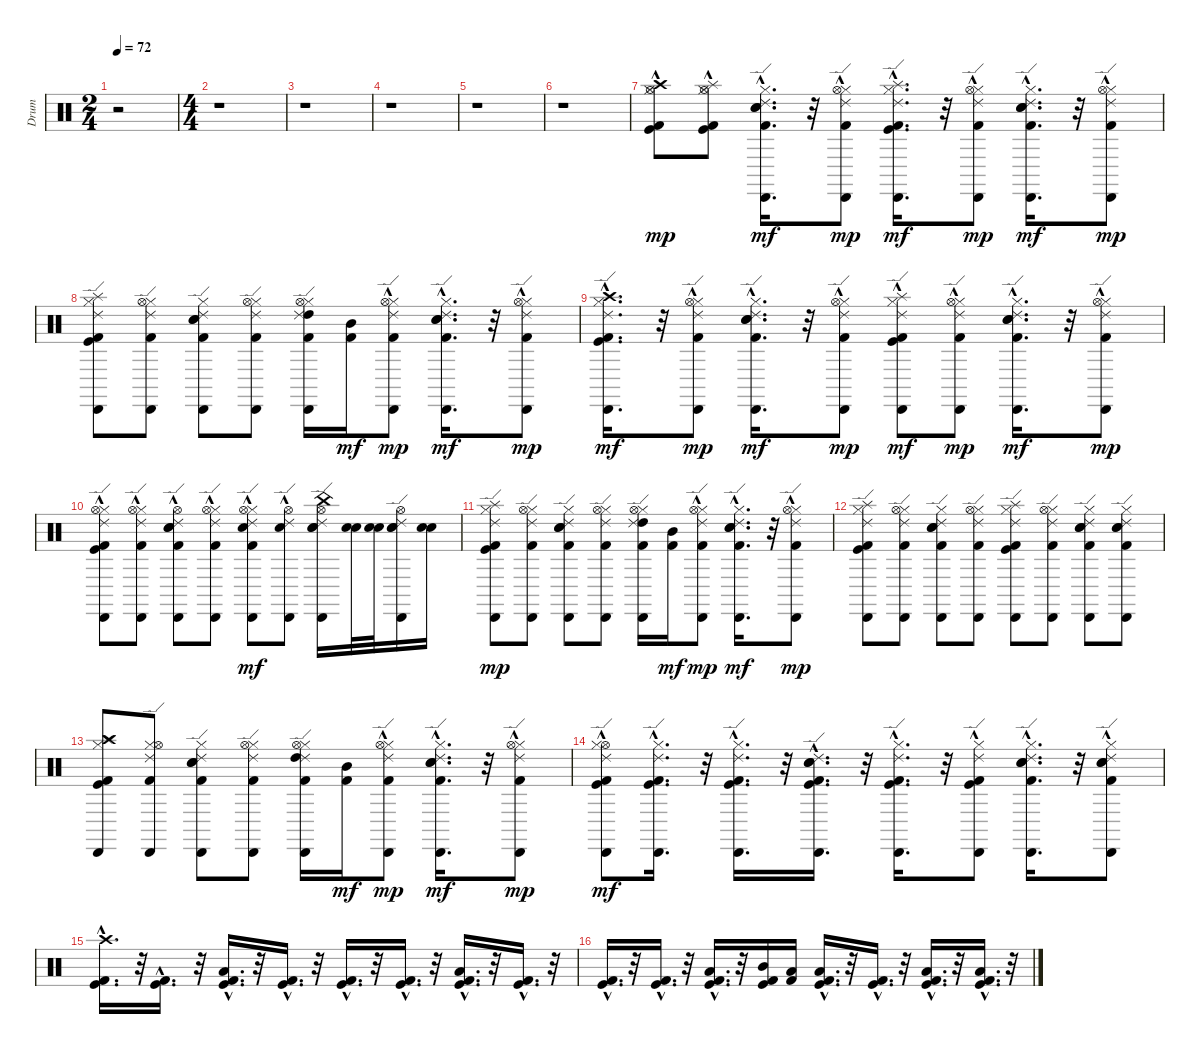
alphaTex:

\track ("Drum" "Drum") {instrument percussion}
\staff {score}
\articulation defaults
\ts (2 4)
\tempo 72
\clef neutral
\ks c
r.2{dy mp} |
\ts (4 4)
r.1 |
r.1 |
r.1 |
r.1 |
r.1 |
("Crash high (hit)"{hac} "Hi-Hat (closed)"{hac} "Kick (hit)"{hac} "Kick (hit) 2"{hac} "Hi-Hat (open)").8 ("Splash (hit)"{hac} "Hi-Hat (closed)"{hac} "Kick (hit)"{hac} "Kick (hit) 2"{hac} "Hi-Hat (open)").8 ("Electric Snare (hit)"{hac} "Snare (hit) 2"{hac} "Kick (hit) 2"{hac} "Cabasa (hit)"{hac} "Hi-Hat (closed)"{hac} "Ride (edge) 2"{hac}).16{d dy mf} r.32 ("Kick (hit) 2"{hac} "Ride (edge) 2"{hac} "Cabasa (hit)"{hac} "Hi-Hat (closed)"{hac} "Hi-Hat (open)").8{dy mp} ("Splash (hit)"{hac} "Ride (edge) 2"{hac} "Cabasa (hit)"{hac} "Kick (hit) 2"{hac} "Kick (hit)"{hac} "Hi-Hat (closed)"{hac}).16{d dy mf} r.32 ("Ride (edge) 2"{hac} "Cabasa (hit)"{hac} "Kick (hit) 2"{hac} "Hi-Hat (closed)"{hac} "Hi-Hat (open)").8{dy mp} ("Kick (hit) 2"{hac} "Electric Snare (hit)"{hac} "Cabasa (hit)"{hac} "Hi-Hat (closed)"{hac} "Snare (hit) 2"{hac} "Ride (edge) 2"{hac}).16{d dy mf} r.32 ("Ride (edge) 2"{hac} "Cabasa (hit)"{hac} "Kick (hit) 2"{hac} "Hi-Hat (closed)"{hac} "Hi-Hat (open)").8{dy mp} |
("Ride (edge) 2" "Kick (hit)" "Hi-Hat (closed)" "Kick (hit) 2" "Cabasa (hit)" "Splash (hit)").8 ("Kick (hit) 2" "Hi-Hat (closed)" "Ride (edge) 2" "Cabasa (hit)" "Hi-Hat (open)").8 ("Ride (edge) 2" "Kick (hit) 2" "Snare (hit) 2" "Electric Snare (hit)" "Hi-Hat (closed)" "Cabasa (hit)").8 ("Hi-Hat (closed)" "Ride (edge) 2" "Kick (hit) 2" "Cabasa (hit)" "Hi-Hat (open)").8 ("Cabasa (hit)" "High Tom (hit)" "Kick (hit) 2" "Ride (edge) 2" "Hi-Hat (closed)" "Hi-Hat (open)").16 ("Mid Tom (hit)" "Kick (hit) 2").16{dy mf} ("Cabasa (hit)"{hac} "Ride (edge) 2"{hac} "Hi-Hat (closed)"{hac} "Kick (hit) 2"{hac} "Hi-Hat (open)").8{dy mp} ("Cabasa (hit)"{hac} "Ride (edge) 2"{hac} "Hi-Hat (closed)"{hac} "Kick (hit) 2"{hac} "Electric Snare (hit)"{hac} "Snare (hit) 2"{hac}).16{d dy mf} r.32 ("Cabasa (hit)"{hac} "Ride (edge) 2"{hac} "Hi-Hat (closed)"{hac} "Kick (hit) 2"{hac} "Hi-Hat (open)").8{dy mp} |
("Crash high (hit)"{hac} "Hi-Hat (closed)"{hac} "Ride (edge) 2"{hac} "Cabasa (hit)"{hac} "Kick (hit) 2"{hac} "Kick (hit)"{hac}).16{d dy mf} r.32 ("Hi-Hat (closed)"{hac} "Ride (edge) 2"{hac} "Cabasa (hit)"{hac} "Kick (hit) 2"{hac} "Hi-Hat (open)").8{dy mp} ("Hi-Hat (closed)"{hac} "Ride (edge) 2"{hac} "Cabasa (hit)"{hac} "Kick (hit) 2"{hac} "Snare (hit) 2"{hac} "Electric Snare (hit)"{hac}).16{d dy mf} r.32 ("Hi-Hat (closed)"{hac} "Ride (edge) 2"{hac} "Cabasa (hit)"{hac} "Kick (hit) 2"{hac} "Hi-Hat (open)").8{dy mp} ("Splash (hit)" "Hi-Hat (closed)"{hac} "Ride (edge) 2"{hac} "Cabasa (hit)"{hac} "Kick (hit) 2"{hac} "Kick (hit)"{hac}).8{dy mf} ("Hi-Hat (closed)"{hac} "Ride (edge) 2"{hac} "Cabasa (hit)"{hac} "Kick (hit) 2"{hac} "Hi-Hat (open)").8{dy mp} ("Hi-Hat (closed)"{hac} "Ride (edge) 2"{hac} "Cabasa (hit)"{hac} "Kick (hit) 2"{hac} "Snare (hit) 2"{hac} "Electric Snare (hit)"{hac}).16{d dy mf} r.32 ("Hi-Hat (closed)"{hac} "Ride (edge) 2"{hac} "Cabasa (hit)"{hac} "Kick (hit) 2"{hac} "Hi-Hat (open)").8{dy mp} |
("Kick (hit) 2"{hac} "Cabasa (hit)"{hac} "Kick (hit)"{hac} "Ride (edge) 2"{hac} "Hi-Hat (closed)"{hac} "Hi-Hat (open)").8 ("Cabasa (hit)"{hac} "Kick (hit) 2"{hac} "Ride (edge) 2"{hac} "Hi-Hat (closed)"{hac} "Hi-Hat (open)").8 ("Kick (hit) 2"{hac} "Snare (hit) 2" "Cabasa (hit)"{hac} "Ride (edge) 2"{hac} "Electric Snare (hit)"{hac} "Hi-Hat (open)").8 ("Cabasa (hit)"{hac} "Kick (hit) 2"{hac} "Ride (edge) 2"{hac} "Hi-Hat (closed)"{hac} "Hi-Hat (open)").8 ("Cabasa (hit)"{hac} "Ride (edge) 2"{hac} "Kick (hit) 2"{hac} "Hi-Hat (closed)"{hac} "Hi-Hat (open)" "Electric Snare (hit)"{hac}).8{dy mf} ("Cabasa (hit)"{hac} "Hi-Hat (open)" "Ride (edge) 2"{hac} "Snare (hit) 2"{hac}).8 ("Electric Snare (hit)" "Cabasa (hit)" "Hi-Hat (open)" "Ride (edge) 2" "Snare (hit) 2" "China (hit)").16 ("Electric Snare (hit)" "Snare (hit) 2").32 ("Electric Snare (hit)" "Snare (hit) 2").32 ("Electric Snare (hit)" "Hi-Hat (open)" "Cabasa (hit)" "Ride (edge) 2" "Snare (hit) 2").16 ("Electric Snare (hit)" "Snare (hit) 2").16 |
("Hi-Hat (closed)" "Kick (hit) 2" "Cabasa (hit)" "Ride (edge) 2" "Kick (hit)" "Splash (hit)").8{dy mp} ("Hi-Hat (closed)" "Cabasa (hit)" "Ride (edge) 2" "Kick (hit) 2" "Hi-Hat (open)").8 ("Hi-Hat (closed)" "Snare (hit) 2" "Kick (hit) 2" "Electric Snare (hit)" "Ride (edge) 2" "Cabasa (hit)").8 ("Kick (hit) 2" "Ride (edge) 2" "Cabasa (hit)" "Hi-Hat (closed)" "Hi-Hat (open)").8 ("Hi-Hat (closed)" "Kick (hit) 2" "High Tom (hit)" "Cabasa (hit)" "Ride (edge) 2" "Hi-Hat (open)").16 ("Kick (hit) 2" "Mid Tom (hit)").16{dy mf} ("Ride (edge) 2"{hac} "Kick (hit) 2"{hac} "Hi-Hat (closed)"{hac} "Cabasa (hit)"{hac} "Hi-Hat (open)").8{dy mp} ("Electric Snare (hit)"{hac} "Hi-Hat (closed)"{hac} "Ride (edge) 2"{hac} "Kick (hit) 2"{hac} "Cabasa (hit)"{hac} "Snare (hit) 2"{hac}).16{d dy mf} r.32 ("Ride (edge) 2"{hac} "Kick (hit) 2"{hac} "Hi-Hat (closed)"{hac} "Cabasa (hit)"{hac} "Hi-Hat (open)").8{dy mp} |
("Splash (hit)" "Ride (edge) 2" "Kick (hit)" "Hi-Hat (closed)" "Kick (hit) 2" "Cabasa (hit)").8 ("Kick (hit) 2" "Hi-Hat (closed)" "Ride (edge) 2" "Cabasa (hit)" "Hi-Hat (open)").8 ("Ride (edge) 2" "Kick (hit) 2" "Snare (hit) 2" "Electric Snare (hit)" "Hi-Hat (closed)" "Cabasa (hit)").8 ("Hi-Hat (closed)" "Ride (edge) 2" "Kick (hit) 2" "Cabasa (hit)" "Hi-Hat (open)").8 ("Splash (hit)" "Hi-Hat (closed)" "Ride (edge) 2" "Kick (hit)" "Kick (hit) 2" "Cabasa (hit)").8 ("Hi-Hat (closed)" "Ride (edge) 2" "Kick (hit) 2" "Cabasa (hit)" "Hi-Hat (open)").8 ("Ride (edge) 2" "Snare (hit) 2" "Hi-Hat (closed)" "Electric Snare (hit)" "Kick (hit) 2" "Cabasa (hit)").8 ("Snare (hit) 2" "Electric Snare (hit)" "Hi-Hat (closed)" "Ride (edge) 2" "Kick (hit) 2" "Cabasa (hit)").8 |
("Crash high (hit)" "Splash (hit)" "Cabasa (hit)" "Kick (hit) 2" "Hi-Hat (closed)" "Kick (hit)").8 ("Cabasa (hit)" "Ride (edge) 2" "Hi-Hat (closed)" "Kick (hit) 2" "Hi-Hat (open)").8 ("Cabasa (hit)" "Hi-Hat (closed)" "Electric Snare (hit)" "Snare (hit) 2" "Kick (hit) 2" "Ride (edge) 2").8 ("Cabasa (hit)" "Kick (hit) 2" "Ride (edge) 2" "Hi-Hat (closed)" "Hi-Hat (open)").8 ("Hi-Hat (closed)" "Ride (edge) 2" "Kick (hit) 2" "High Tom (hit)" "Cabasa (hit)" "Hi-Hat (open)").16 ("Kick (hit) 2" "Mid Tom (hit)").16{dy mf} ("Kick (hit) 2"{hac} "Hi-Hat (closed)"{hac} "Ride (edge) 2"{hac} "Cabasa (hit)"{hac} "Hi-Hat (open)").8{dy mp} ("Snare (hit) 2"{hac} "Electric Snare (hit)"{hac} "Kick (hit) 2"{hac} "Hi-Hat (closed)"{hac} "Ride (edge) 2"{hac} "Cabasa (hit)"{hac}).16{d dy mf} r.32 ("Kick (hit) 2"{hac} "Hi-Hat (closed)"{hac} "Ride (edge) 2"{hac} "Cabasa (hit)"{hac} "Hi-Hat (open)").8{dy mp} |
("Hi-Hat (open)" "Hi-Hat (closed)"{hac} "Cabasa (hit)"{hac} "Ride (edge) 2"{hac} "Kick (hit)"{hac} "Kick (hit) 2"{hac}).8{dy mf} ("Hi-Hat (closed)"{hac} "Cabasa (hit)"{hac} "Ride (edge) 2"{hac} "Kick (hit)"{hac} "Kick (hit) 2"{hac}).16{d} r.32 ("Hi-Hat (closed)"{hac} "Cabasa (hit)"{hac} "Ride (edge) 2"{hac} "Kick (hit) 2"{hac} "Kick (hit)"{hac}).16{d} r.32 ("Cabasa (hit)"{hac} "Snare (hit) 2"{hac} "Electric Snare (hit)"{hac} "Ride (edge) 2"{hac} "Kick (hit) 2"{hac} "Kick (hit)"{hac}).16{d} r.32 ("Hi-Hat (closed)"{hac} "Cabasa (hit)"{hac} "Ride (edge) 2"{hac} "Kick (hit) 2"{hac} "Kick (hit)"{hac}).16{d} r.32 ("Hi-Hat (closed)"{hac} "Cabasa (hit)"{hac} "Ride (edge) 2"{hac} "Kick (hit) 2"{hac} "Kick (hit)").8 ("Hi-Hat (closed)"{hac} "Cabasa (hit)"{hac} "Snare (hit) 2"{hac} "Electric Snare (hit)"{hac} "Ride (edge) 2"{hac} "Kick (hit) 2"{hac}).16{d} r.32 ("Hi-Hat (closed)"{hac} "Cabasa (hit)"{hac} "Snare (hit) 2"{hac} "Electric Snare (hit)" "Ride (edge) 2"{hac} "Kick (hit) 2"{hac}).8 |
("Kick (hit)"{hac} "Crash high (hit)"{hac} "Kick (hit) 2"{hac}).16{d} r.32 ("Kick (hit)"{hac} "Kick (hit) 2"{hac}).16{d} r.32 ("Low Tom (hit)"{hac} "Kick (hit)"{hac} "Kick (hit) 2"{hac}).16{d} r.32 ("Kick (hit) 2"{hac} "Kick (hit)"{hac}).16{d} r.32 ("Kick (hit)"{hac} "Kick (hit) 2"{hac}).16{d} r.32 ("Kick (hit)"{hac} "Kick (hit) 2"{hac}).16{d} r.32 ("Kick (hit)"{hac} "Low Tom (hit)"{hac} "Kick (hit) 2"{hac}).16{d} r.32 ("Kick (hit)"{hac} "Kick (hit) 2"{hac}).16{d} r.32 |
("Kick (hit)"{hac} "Kick (hit) 2"{hac}).16{d} r.32 ("Kick (hit)"{hac} "Kick (hit) 2"{hac}).16{d} r.32 ("Low Tom (hit)"{hac} "Kick (hit)"{hac} "Kick (hit) 2"{hac}).16{d} r.32 ("Kick (hit)" "Mid Tom (hit)" "Kick (hit) 2").16 ("Low Tom (hit)" "Kick (hit) 2").16 ("Kick (hit)"{hac} "Low Floor Tom (hit)"{hac} "Kick (hit) 2"{hac}).16{d} r.32 ("Kick (hit)"{hac} "Kick (hit) 2"{hac}).16{d} r.32 ("Low Tom (hit)"{hac} "Kick (hit)"{hac} "Kick (hit) 2"{hac}).16{d} r.32 ("Low Tom (hit)"{hac} "Kick (hit)"{hac} "Kick (hit) 2"{hac}).16{d} r.32
